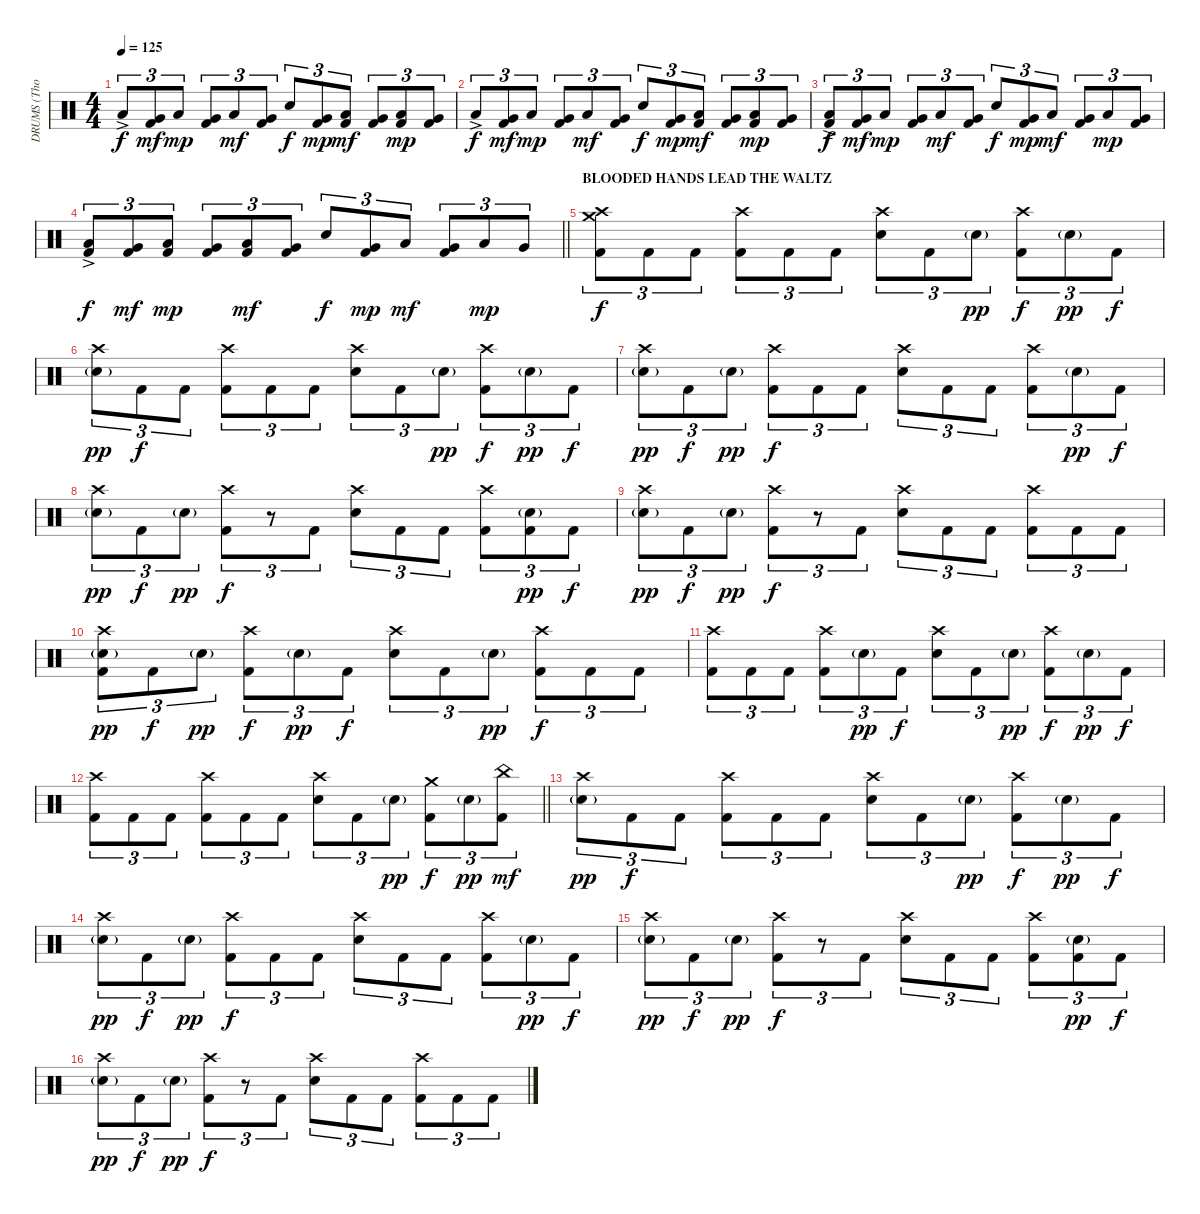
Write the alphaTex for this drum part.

\track ("DRUMS (Thomas Haake)" "DRUMS (Tho") {instrument percussion}
\staff {score}
\articulation defaults
\ts (4 4)
\tempo 125
\clef neutral
\ks c "Low Floor Tom (hit)"{ac}.8{tu (3 2) dy f}
("Very Low Tom (hit)" "Kick (hit) 2").8{tu (3 2) dy mf} "Low Floor Tom (hit)".8{tu (3 2) dy mp} ("Very Low Tom (hit)" "Kick (hit) 2").8{tu (3 2)} "Low Floor Tom (hit)".8{tu (3 2) dy mf} ("Very Low Tom (hit)" "Kick (hit) 2").8{tu (3 2)} "Electric Snare (hit)".8{tu (3 2) dy f} ("Very Low Tom (hit)" "Kick (hit) 2").8{tu (3 2) dy mp} ("Low Floor Tom (hit)" "Kick (hit) 2").8{tu (3 2) dy mf} ("Very Low Tom (hit)" "Kick (hit) 2").8{tu (3 2)} ("Low Floor Tom (hit)" "Kick (hit) 2").8{tu (3 2) dy mp} ("Very Low Tom (hit)" "Kick (hit) 2").8{tu (3 2)} |
"Low Floor Tom (hit)"{ac}.8{tu (3 2) dy f} ("Very Low Tom (hit)" "Kick (hit) 2").8{tu (3 2) dy mf} "Low Floor Tom (hit)".8{tu (3 2) dy mp} ("Very Low Tom (hit)" "Kick (hit) 2").8{tu (3 2)} "Low Floor Tom (hit)".8{tu (3 2) dy mf} ("Very Low Tom (hit)" "Kick (hit) 2").8{tu (3 2)} "Electric Snare (hit)".8{tu (3 2) dy f} ("Very Low Tom (hit)" "Kick (hit) 2").8{tu (3 2) dy mp} ("Low Floor Tom (hit)" "Kick (hit) 2").8{tu (3 2) dy mf} ("Very Low Tom (hit)" "Kick (hit) 2").8{tu (3 2)} ("Low Floor Tom (hit)" "Kick (hit) 2").8{tu (3 2) dy mp} ("Very Low Tom (hit)" "Kick (hit) 2").8{tu (3 2)} |
("Low Floor Tom (hit)"{ac} "Kick (hit) 2").8{tu (3 2) dy f} ("Very Low Tom (hit)" "Kick (hit) 2").8{tu (3 2) dy mf} "Low Floor Tom (hit)".8{tu (3 2) dy mp} ("Very Low Tom (hit)" "Kick (hit) 2").8{tu (3 2)} "Low Floor Tom (hit)".8{tu (3 2) dy mf} ("Very Low Tom (hit)" "Kick (hit) 2").8{tu (3 2)} "Electric Snare (hit)".8{tu (3 2) dy f} ("Very Low Tom (hit)" "Kick (hit) 2").8{tu (3 2) dy mp} "Low Floor Tom (hit)".8{tu (3 2) dy mf} ("Very Low Tom (hit)" "Kick (hit) 2").8{tu (3 2)} "Low Floor Tom (hit)".8{tu (3 2) dy mp} ("Very Low Tom (hit)" "Kick (hit) 2").8{tu (3 2)} |
\barLineRight lightlight
("Low Floor Tom (hit)"{ac} "Kick (hit) 2").8{tu (3 2) dy f} ("Very Low Tom (hit)" "Kick (hit) 2").8{tu (3 2) dy mf} ("Low Floor Tom (hit)" "Kick (hit) 2").8{tu (3 2) dy mp} ("Very Low Tom (hit)" "Kick (hit) 2").8{tu (3 2)} ("Low Floor Tom (hit)" "Kick (hit) 2").8{tu (3 2) dy mf} ("Very Low Tom (hit)" "Kick (hit) 2").8{tu (3 2)} "Electric Snare (hit)".8{tu (3 2) dy f} ("Very Low Tom (hit)" "Kick (hit) 2").8{tu (3 2) dy mp} "Low Floor Tom (hit)".8{tu (3 2) dy mf} ("Very Low Tom (hit)" "Kick (hit) 2").8{tu (3 2)} "Low Floor Tom (hit)".8{tu (3 2) dy mp} "Very Low Tom (hit)".8{tu (3 2)} |
\section ("" "BLOODED HANDS LEAD THE WALTZ")
("Crash high (hit)" "Crash medium (hit)" "Kick (hit) 2").8{tu (3 2) dy f} "Kick (hit) 2".8{tu (3 2)} "Kick (hit) 2".8{tu (3 2)} ("Crash high (hit)" "Kick (hit) 2").8{tu (3 2)} "Kick (hit) 2".8{tu (3 2)} "Kick (hit) 2".8{tu (3 2)} ("Crash high (hit)" "Electric Snare (hit)").8{tu (3 2)} "Kick (hit) 2".8{tu (3 2)} "Electric Snare (hit)"{g}.8{tu (3 2) dy pp} ("Crash high (hit)" "Kick (hit) 2").8{tu (3 2) dy f} "Electric Snare (hit)"{g}.8{tu (3 2) dy pp} "Kick (hit) 2".8{tu (3 2) dy f} |
("Crash high (hit)" "Electric Snare (hit)"{g}).8{tu (3 2) dy pp} "Kick (hit) 2".8{tu (3 2) dy f} "Kick (hit) 2".8{tu (3 2)} ("Crash high (hit)" "Kick (hit) 2").8{tu (3 2)} "Kick (hit) 2".8{tu (3 2)} "Kick (hit) 2".8{tu (3 2)} ("Crash high (hit)" "Electric Snare (hit)").8{tu (3 2)} "Kick (hit) 2".8{tu (3 2)} "Electric Snare (hit)"{g}.8{tu (3 2) dy pp} ("Crash high (hit)" "Kick (hit) 2").8{tu (3 2) dy f} "Electric Snare (hit)"{g}.8{tu (3 2) dy pp} "Kick (hit) 2".8{tu (3 2) dy f} |
("Crash high (hit)" "Electric Snare (hit)"{g}).8{tu (3 2) dy pp} "Kick (hit) 2".8{tu (3 2) dy f} "Electric Snare (hit)"{g}.8{tu (3 2) dy pp} ("Crash high (hit)" "Kick (hit) 2").8{tu (3 2) dy f} "Kick (hit) 2".8{tu (3 2)} "Kick (hit) 2".8{tu (3 2)} ("Crash high (hit)" "Electric Snare (hit)").8{tu (3 2)} "Kick (hit) 2".8{tu (3 2)} "Kick (hit) 2".8{tu (3 2)} ("Crash high (hit)" "Kick (hit) 2").8{tu (3 2)} "Electric Snare (hit)"{g}.8{tu (3 2) dy pp} "Kick (hit) 2".8{tu (3 2) dy f} |
("Crash high (hit)" "Electric Snare (hit)"{g}).8{tu (3 2) dy pp} "Kick (hit) 2".8{tu (3 2) dy f} "Electric Snare (hit)"{g}.8{tu (3 2) dy pp} ("Crash high (hit)" "Kick (hit) 2").8{tu (3 2) dy f} r.8{tu (3 2)} "Kick (hit) 2".8{tu (3 2)} ("Crash high (hit)" "Electric Snare (hit)").8{tu (3 2)} "Kick (hit) 2".8{tu (3 2)} "Kick (hit) 2".8{tu (3 2)} ("Crash high (hit)" "Kick (hit) 2").8{tu (3 2)} ("Electric Snare (hit)"{g} "Kick (hit) 2").8{tu (3 2) dy pp} "Kick (hit) 2".8{tu (3 2) dy f} |
("Crash high (hit)" "Electric Snare (hit)"{g}).8{tu (3 2) dy pp} "Kick (hit) 2".8{tu (3 2) dy f} "Electric Snare (hit)"{g}.8{tu (3 2) dy pp} ("Crash high (hit)" "Kick (hit) 2").8{tu (3 2) dy f} r.8{tu (3 2)} "Kick (hit) 2".8{tu (3 2)} ("Crash high (hit)" "Electric Snare (hit)").8{tu (3 2)} "Kick (hit) 2".8{tu (3 2)} "Kick (hit) 2".8{tu (3 2)} ("Crash high (hit)" "Kick (hit) 2").8{tu (3 2)} "Kick (hit) 2".8{tu (3 2)} "Kick (hit) 2".8{tu (3 2)} |
("Crash high (hit)" "Electric Snare (hit)"{g} "Kick (hit) 2").8{tu (3 2) dy pp} "Kick (hit) 2".8{tu (3 2) dy f} "Electric Snare (hit)"{g}.8{tu (3 2) dy pp} ("Crash high (hit)" "Kick (hit) 2").8{tu (3 2) dy f} "Electric Snare (hit)"{g}.8{tu (3 2) dy pp} "Kick (hit) 2".8{tu (3 2) dy f} ("Crash high (hit)" "Electric Snare (hit)").8{tu (3 2)} "Kick (hit) 2".8{tu (3 2)} "Electric Snare (hit)"{g}.8{tu (3 2) dy pp} ("Crash high (hit)" "Kick (hit) 2").8{tu (3 2) dy f} "Kick (hit) 2".8{tu (3 2)} "Kick (hit) 2".8{tu (3 2)} |
("Crash high (hit)" "Kick (hit) 2").8{tu (3 2)} "Kick (hit) 2".8{tu (3 2)} "Kick (hit) 2".8{tu (3 2)} ("Crash high (hit)" "Kick (hit) 2").8{tu (3 2)} "Electric Snare (hit)"{g}.8{tu (3 2) dy pp} "Kick (hit) 2".8{tu (3 2) dy f} ("Crash high (hit)" "Electric Snare (hit)").8{tu (3 2)} "Kick (hit) 2".8{tu (3 2)} "Electric Snare (hit)"{g}.8{tu (3 2) dy pp} ("Crash high (hit)" "Kick (hit) 2").8{tu (3 2) dy f} "Electric Snare (hit)"{g}.8{tu (3 2) dy pp} "Kick (hit) 2".8{tu (3 2) dy f} |
\barLineRight lightlight
("Crash high (hit)" "Kick (hit) 2").8{tu (3 2)} "Kick (hit) 2".8{tu (3 2)} "Kick (hit) 2".8{tu (3 2)} ("Crash high (hit)" "Kick (hit) 2").8{tu (3 2)} "Kick (hit) 2".8{tu (3 2)} "Kick (hit) 2".8{tu (3 2)} ("Crash high (hit)" "Electric Snare (hit)").8{tu (3 2)} "Kick (hit) 2".8{tu (3 2)} "Electric Snare (hit)"{g}.8{tu (3 2) dy pp} ("Crash medium (hit)" "Kick (hit) 2").8{tu (3 2) dy f} "Electric Snare (hit)"{g}.8{tu (3 2) dy pp} ("China (hit)" "Kick (hit) 2").8{tu (3 2) dy mf} |
("Crash high (hit)" "Electric Snare (hit)"{g}).8{tu (3 2) dy pp} "Kick (hit) 2".8{tu (3 2) dy f} "Kick (hit) 2".8{tu (3 2)} ("Crash high (hit)" "Kick (hit) 2").8{tu (3 2)} "Kick (hit) 2".8{tu (3 2)} "Kick (hit) 2".8{tu (3 2)} ("Crash high (hit)" "Electric Snare (hit)").8{tu (3 2)} "Kick (hit) 2".8{tu (3 2)} "Electric Snare (hit)"{g}.8{tu (3 2) dy pp} ("Crash high (hit)" "Kick (hit) 2").8{tu (3 2) dy f} "Electric Snare (hit)"{g}.8{tu (3 2) dy pp} "Kick (hit) 2".8{tu (3 2) dy f} |
("Crash high (hit)" "Electric Snare (hit)"{g}).8{tu (3 2) dy pp} "Kick (hit) 2".8{tu (3 2) dy f} "Electric Snare (hit)"{g}.8{tu (3 2) dy pp} ("Crash high (hit)" "Kick (hit) 2").8{tu (3 2) dy f} "Kick (hit) 2".8{tu (3 2)} "Kick (hit) 2".8{tu (3 2)} ("Crash high (hit)" "Electric Snare (hit)").8{tu (3 2)} "Kick (hit) 2".8{tu (3 2)} "Kick (hit) 2".8{tu (3 2)} ("Crash high (hit)" "Kick (hit) 2").8{tu (3 2)} "Electric Snare (hit)"{g}.8{tu (3 2) dy pp} "Kick (hit) 2".8{tu (3 2) dy f} |
("Crash high (hit)" "Electric Snare (hit)"{g}).8{tu (3 2) dy pp} "Kick (hit) 2".8{tu (3 2) dy f} "Electric Snare (hit)"{g}.8{tu (3 2) dy pp} ("Crash high (hit)" "Kick (hit) 2").8{tu (3 2) dy f} r.8{tu (3 2)} "Kick (hit) 2".8{tu (3 2)} ("Crash high (hit)" "Electric Snare (hit)").8{tu (3 2)} "Kick (hit) 2".8{tu (3 2)} "Kick (hit) 2".8{tu (3 2)} ("Crash high (hit)" "Kick (hit) 2").8{tu (3 2)} ("Electric Snare (hit)"{g} "Kick (hit) 2").8{tu (3 2) dy pp} "Kick (hit) 2".8{tu (3 2) dy f} |
("Crash high (hit)" "Electric Snare (hit)"{g}).8{tu (3 2) dy pp} "Kick (hit) 2".8{tu (3 2) dy f} "Electric Snare (hit)"{g}.8{tu (3 2) dy pp} ("Crash high (hit)" "Kick (hit) 2").8{tu (3 2) dy f} r.8{tu (3 2)} "Kick (hit) 2".8{tu (3 2)} ("Crash high (hit)" "Electric Snare (hit)").8{tu (3 2)} "Kick (hit) 2".8{tu (3 2)} "Kick (hit) 2".8{tu (3 2)} ("Crash high (hit)" "Kick (hit) 2").8{tu (3 2)} "Kick (hit) 2".8{tu (3 2)} "Kick (hit) 2".8{tu (3 2)}
